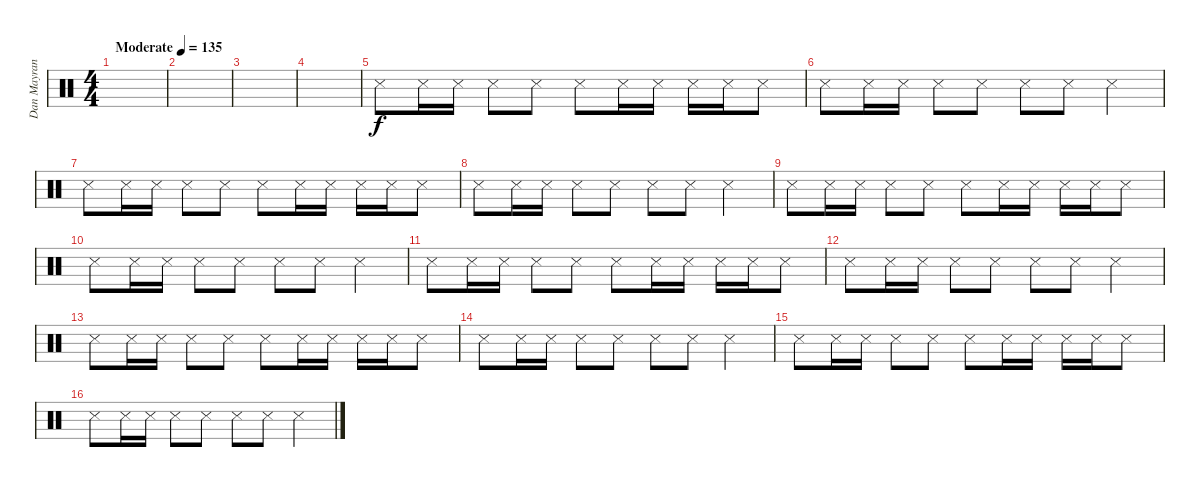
\track ("Dan Mayrand - Drum" "Dan Mayran") {instrument percussion}
\staff {score}
\articulation defaults
\ts (4 4)
\tempo (135 "Moderate")
\clef neutral
\ks c
|
|
|
|
"Snare (side stick) 3".8 "Snare (side stick) 3".16 "Snare (side stick) 3".16 "Snare (side stick) 3".8 "Snare (side stick) 3".8 "Snare (side stick) 3".8 "Snare (side stick) 3".16 "Snare (side stick) 3".16 "Snare (side stick) 3".16 "Snare (side stick) 3".16 "Snare (side stick) 3".8 |
"Snare (side stick) 3".8 "Snare (side stick) 3".16 "Snare (side stick) 3".16 "Snare (side stick) 3".8 "Snare (side stick) 3".8 "Snare (side stick) 3".8 "Snare (side stick) 3".8 "Snare (side stick) 3".4 |
"Snare (side stick) 3".8 "Snare (side stick) 3".16 "Snare (side stick) 3".16 "Snare (side stick) 3".8 "Snare (side stick) 3".8 "Snare (side stick) 3".8 "Snare (side stick) 3".16 "Snare (side stick) 3".16 "Snare (side stick) 3".16 "Snare (side stick) 3".16 "Snare (side stick) 3".8 |
"Snare (side stick) 3".8 "Snare (side stick) 3".16 "Snare (side stick) 3".16 "Snare (side stick) 3".8 "Snare (side stick) 3".8 "Snare (side stick) 3".8 "Snare (side stick) 3".8 "Snare (side stick) 3".4 |
"Snare (side stick) 3".8 "Snare (side stick) 3".16 "Snare (side stick) 3".16 "Snare (side stick) 3".8 "Snare (side stick) 3".8 "Snare (side stick) 3".8 "Snare (side stick) 3".16 "Snare (side stick) 3".16 "Snare (side stick) 3".16 "Snare (side stick) 3".16 "Snare (side stick) 3".8 |
"Snare (side stick) 3".8 "Snare (side stick) 3".16 "Snare (side stick) 3".16 "Snare (side stick) 3".8 "Snare (side stick) 3".8 "Snare (side stick) 3".8 "Snare (side stick) 3".8 "Snare (side stick) 3".4 |
"Snare (side stick) 3".8 "Snare (side stick) 3".16 "Snare (side stick) 3".16 "Snare (side stick) 3".8 "Snare (side stick) 3".8 "Snare (side stick) 3".8 "Snare (side stick) 3".16 "Snare (side stick) 3".16 "Snare (side stick) 3".16 "Snare (side stick) 3".16 "Snare (side stick) 3".8 |
"Snare (side stick) 3".8 "Snare (side stick) 3".16 "Snare (side stick) 3".16 "Snare (side stick) 3".8 "Snare (side stick) 3".8 "Snare (side stick) 3".8 "Snare (side stick) 3".8 "Snare (side stick) 3".4 |
"Snare (side stick) 3".8 "Snare (side stick) 3".16 "Snare (side stick) 3".16 "Snare (side stick) 3".8 "Snare (side stick) 3".8 "Snare (side stick) 3".8 "Snare (side stick) 3".16 "Snare (side stick) 3".16 "Snare (side stick) 3".16 "Snare (side stick) 3".16 "Snare (side stick) 3".8 |
"Snare (side stick) 3".8 "Snare (side stick) 3".16 "Snare (side stick) 3".16 "Snare (side stick) 3".8 "Snare (side stick) 3".8 "Snare (side stick) 3".8 "Snare (side stick) 3".8 "Snare (side stick) 3".4 |
"Snare (side stick) 3".8 "Snare (side stick) 3".16 "Snare (side stick) 3".16 "Snare (side stick) 3".8 "Snare (side stick) 3".8 "Snare (side stick) 3".8 "Snare (side stick) 3".16 "Snare (side stick) 3".16 "Snare (side stick) 3".16 "Snare (side stick) 3".16 "Snare (side stick) 3".8 |
"Snare (side stick) 3".8 "Snare (side stick) 3".16 "Snare (side stick) 3".16 "Snare (side stick) 3".8 "Snare (side stick) 3".8 "Snare (side stick) 3".8 "Snare (side stick) 3".8 "Snare (side stick) 3".4
